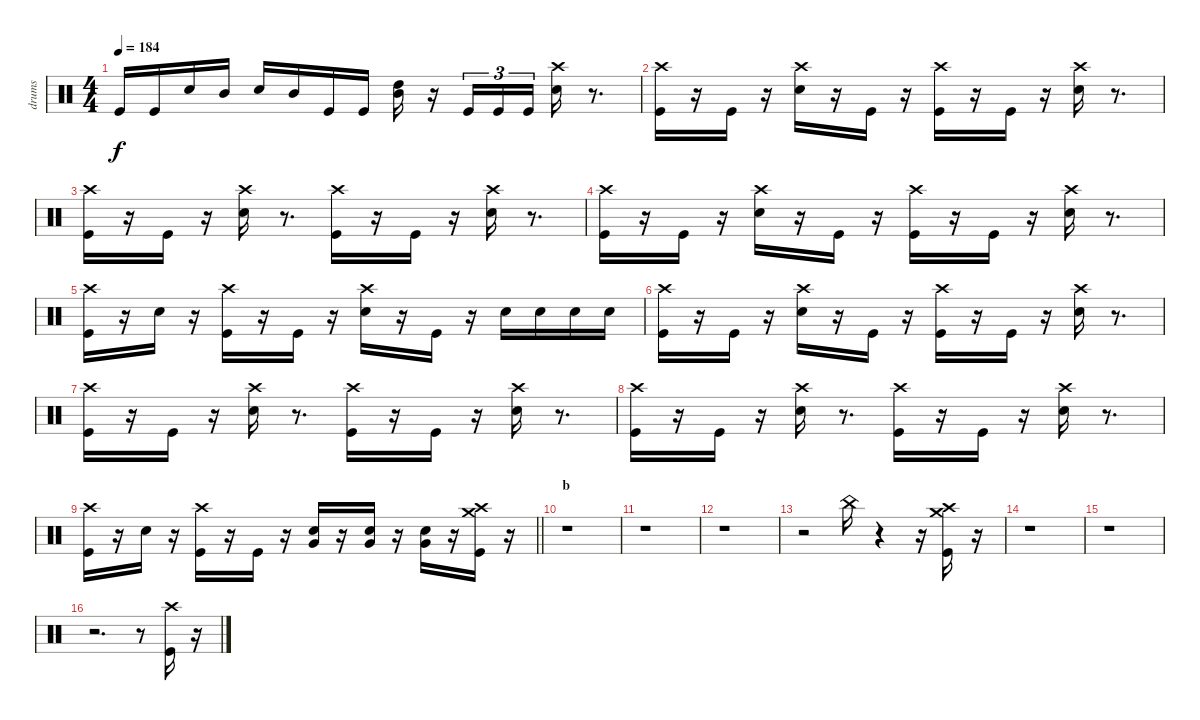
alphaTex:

\track ("drums" "drums") {instrument percussion}
\staff {score}
\articulation defaults
\ts (4 4)
\tempo 184
\clef neutral
\ks c "Kick (hit)".16{dy f} "Kick (hit)".16 "Snare (hit) 2".16 "Mid Tom (hit)".16 "Snare (hit) 2".16 "Mid Tom (hit)".16 "Kick (hit)".16 "Kick (hit)".16
("Mid Tom (hit)" "High Tom (hit)").16 r.16 "Kick (hit)".16{tu (3 2)} "Kick (hit)".16{tu (3 2)} "Kick (hit)".16{tu (3 2)} ("Snare (hit) 2" "Crash high (hit)").16 r.8{d} |
("Kick (hit)" "Crash high (hit)").16 r.16 "Kick (hit)".16 r.16 ("Snare (hit) 2" "Crash high (hit)").16 r.16 "Kick (hit)".16 r.16 ("Kick (hit)" "Crash high (hit)").16 r.16 "Kick (hit)".16 r.16 ("Snare (hit) 2" "Crash high (hit)").16 r.8{d} |
("Kick (hit)" "Crash high (hit)").16 r.16 "Kick (hit)".16 r.16 ("Snare (hit) 2" "Crash high (hit)").16 r.8{d} ("Kick (hit)" "Crash high (hit)").16 r.16 "Kick (hit)".16 r.16 ("Snare (hit) 2" "Crash high (hit)").16 r.8{d} |
("Kick (hit)" "Crash high (hit)").16 r.16 "Kick (hit)".16 r.16 ("Snare (hit) 2" "Crash high (hit)").16 r.16 "Kick (hit)".16 r.16 ("Kick (hit)" "Crash high (hit)").16 r.16 "Kick (hit)".16 r.16 ("Snare (hit) 2" "Crash high (hit)").16 r.8{d} |
("Kick (hit)" "Crash high (hit)").16 r.16 "Snare (hit) 2".16 r.16 ("Kick (hit)" "Crash high (hit)").16 r.16 "Kick (hit)".16 r.16 ("Snare (hit) 2" "Crash high (hit)").16 r.16 "Kick (hit)".16 r.16 "Snare (hit) 2".16 "Snare (hit) 2".16 "Snare (hit) 2".16 "Snare (hit) 2".16 |
("Kick (hit)" "Crash high (hit)").16 r.16 "Kick (hit)".16 r.16 ("Snare (hit) 2" "Crash high (hit)").16 r.16 "Kick (hit)".16 r.16 ("Kick (hit)" "Crash high (hit)").16 r.16 "Kick (hit)".16 r.16 ("Snare (hit) 2" "Crash high (hit)").16 r.8{d} |
("Kick (hit)" "Crash high (hit)").16 r.16 "Kick (hit)".16 r.16 ("Snare (hit) 2" "Crash high (hit)").16 r.8{d} ("Kick (hit)" "Crash high (hit)").16 r.16 "Kick (hit)".16 r.16 ("Snare (hit) 2" "Crash high (hit)").16 r.8{d} |
("Kick (hit)" "Crash high (hit)").16 r.16 "Kick (hit)".16 r.16 ("Snare (hit) 2" "Crash high (hit)").16 r.8{d} ("Kick (hit)" "Crash high (hit)").16 r.16 "Kick (hit)".16 r.16 ("Snare (hit) 2" "Crash high (hit)").16 r.8{d} |
\barLineRight lightlight
("Kick (hit)" "Crash high (hit)").16 r.16 "Snare (hit) 2".16 r.16 ("Kick (hit)" "Crash high (hit)").16 r.16 "Kick (hit)".16 r.16 ("Snare (hit) 2" "Very Low Tom (hit)").16 r.16 ("Snare (hit) 2" "Very Low Tom (hit)").16 r.16 ("Snare (hit) 2" "Very Low Tom (hit)").16 r.16 ("Kick (hit)" "Crash high (hit)" "Crash medium (hit)").16 r.16 |
\section ("" "b")
r.1 |
r.1 |
r.1 |
r.2 "China (hit)".16 r.4 r.16 ("Kick (hit)" "Crash high (hit)" "Crash medium (hit)").16 r.16 |
r.1 |
r.1 |
r.2{d} r.8 ("Kick (hit)" "Crash high (hit)").16 r.16
